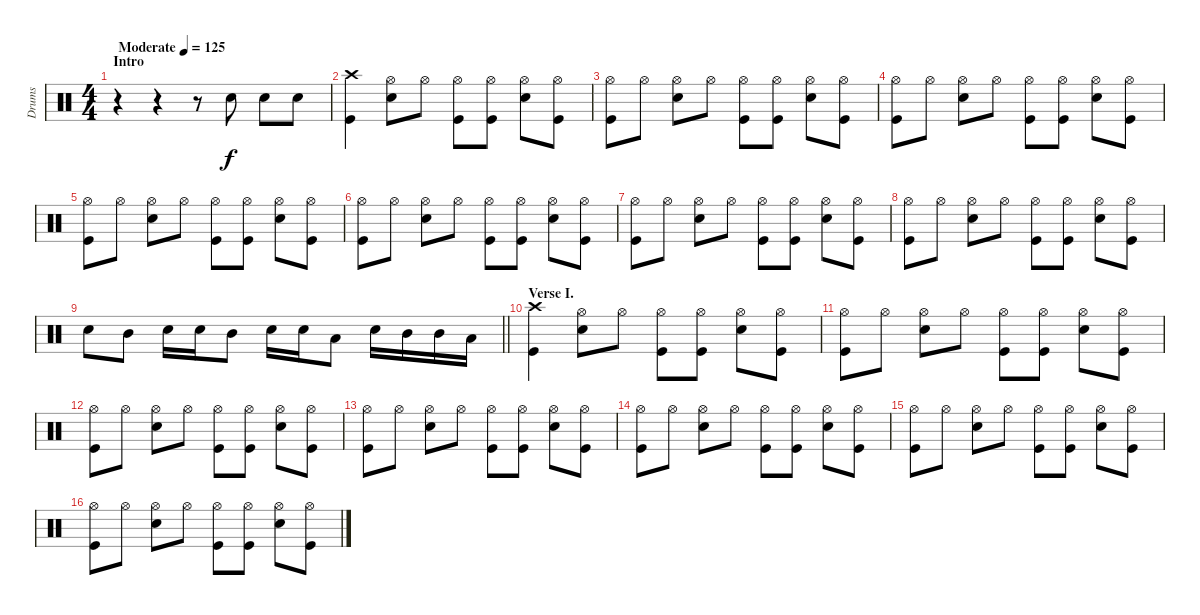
\track ("Drums" "Drums") {instrument percussion}
\staff {score}
\articulation defaults
\ts (4 4)
\section ("" "Intro")
\tempo (125 "Moderate")
\clef neutral
\ks c
r.4{dy f} r.4 r.8 "Electric Snare (hit)".8 "Electric Snare (hit)".8 "Electric Snare (hit)".8 |
("Crash high (hit)" "Kick (hit)").4 ("Hi-Hat (open)" "Electric Snare (hit)").8 "Hi-Hat (open)".8 ("Hi-Hat (open)" "Kick (hit)").8 ("Hi-Hat (open)" "Kick (hit)").8 ("Hi-Hat (open)" "Electric Snare (hit)").8 ("Hi-Hat (open)" "Kick (hit)").8 |
("Hi-Hat (open)" "Kick (hit)").8 "Hi-Hat (open)".8 ("Hi-Hat (open)" "Electric Snare (hit)").8 "Hi-Hat (open)".8 ("Hi-Hat (open)" "Kick (hit)").8 ("Hi-Hat (open)" "Kick (hit)").8 ("Hi-Hat (open)" "Electric Snare (hit)").8 ("Hi-Hat (open)" "Kick (hit)").8 |
("Hi-Hat (open)" "Kick (hit)").8 "Hi-Hat (open)".8 ("Hi-Hat (open)" "Electric Snare (hit)").8 "Hi-Hat (open)".8 ("Hi-Hat (open)" "Kick (hit)").8 ("Hi-Hat (open)" "Kick (hit)").8 ("Hi-Hat (open)" "Electric Snare (hit)").8 ("Hi-Hat (open)" "Kick (hit)").8 |
("Hi-Hat (open)" "Kick (hit)").8 "Hi-Hat (open)".8 ("Hi-Hat (open)" "Electric Snare (hit)").8 "Hi-Hat (open)".8 ("Hi-Hat (open)" "Kick (hit)").8 ("Hi-Hat (open)" "Kick (hit)").8 ("Hi-Hat (open)" "Electric Snare (hit)").8 ("Hi-Hat (open)" "Kick (hit)").8 |
("Hi-Hat (open)" "Kick (hit)").8 "Hi-Hat (open)".8 ("Hi-Hat (open)" "Electric Snare (hit)").8 "Hi-Hat (open)".8 ("Hi-Hat (open)" "Kick (hit)").8 ("Hi-Hat (open)" "Kick (hit)").8 ("Hi-Hat (open)" "Electric Snare (hit)").8 ("Hi-Hat (open)" "Kick (hit)").8 |
("Hi-Hat (open)" "Kick (hit)").8 "Hi-Hat (open)".8 ("Hi-Hat (open)" "Electric Snare (hit)").8 "Hi-Hat (open)".8 ("Hi-Hat (open)" "Kick (hit)").8 ("Hi-Hat (open)" "Kick (hit)").8 ("Hi-Hat (open)" "Electric Snare (hit)").8 ("Hi-Hat (open)" "Kick (hit)").8 |
("Hi-Hat (open)" "Kick (hit)").8 "Hi-Hat (open)".8 ("Hi-Hat (open)" "Electric Snare (hit)").8 "Hi-Hat (open)".8 ("Hi-Hat (open)" "Kick (hit)").8 ("Hi-Hat (open)" "Kick (hit)").8 ("Hi-Hat (open)" "Electric Snare (hit)").8 ("Hi-Hat (open)" "Kick (hit)").8 |
\barLineRight lightlight "Electric Snare (hit)".8 "Mid Tom (hit)".8 "Electric Snare (hit)".16 "Electric Snare (hit)".16 "Mid Tom (hit)".8 "Electric Snare (hit)".16 "Electric Snare (hit)".16 "Low Tom (hit)".8 "Electric Snare (hit)".16 "Mid Tom (hit)".16 "Mid Tom (hit)".16 "Low Tom (hit)".16
|
\section ("" "Verse I.")
("Crash high (hit)" "Kick (hit)").4 ("Hi-Hat (open)" "Electric Snare (hit)").8 "Hi-Hat (open)".8 ("Hi-Hat (open)" "Kick (hit)").8 ("Hi-Hat (open)" "Kick (hit)").8 ("Hi-Hat (open)" "Electric Snare (hit)").8 ("Hi-Hat (open)" "Kick (hit)").8 |
("Hi-Hat (open)" "Kick (hit)").8 "Hi-Hat (open)".8 ("Hi-Hat (open)" "Electric Snare (hit)").8 "Hi-Hat (open)".8 ("Hi-Hat (open)" "Kick (hit)").8 ("Hi-Hat (open)" "Kick (hit)").8 ("Hi-Hat (open)" "Electric Snare (hit)").8 ("Hi-Hat (open)" "Kick (hit)").8 |
("Hi-Hat (open)" "Kick (hit)").8 "Hi-Hat (open)".8 ("Hi-Hat (open)" "Electric Snare (hit)").8 "Hi-Hat (open)".8 ("Hi-Hat (open)" "Kick (hit)").8 ("Hi-Hat (open)" "Kick (hit)").8 ("Hi-Hat (open)" "Electric Snare (hit)").8 ("Hi-Hat (open)" "Kick (hit)").8 |
("Hi-Hat (open)" "Kick (hit)").8 "Hi-Hat (open)".8 ("Hi-Hat (open)" "Electric Snare (hit)").8 "Hi-Hat (open)".8 ("Hi-Hat (open)" "Kick (hit)").8 ("Hi-Hat (open)" "Kick (hit)").8 ("Hi-Hat (open)" "Electric Snare (hit)").8 ("Hi-Hat (open)" "Kick (hit)").8 |
("Hi-Hat (open)" "Kick (hit)").8 "Hi-Hat (open)".8 ("Hi-Hat (open)" "Electric Snare (hit)").8 "Hi-Hat (open)".8 ("Hi-Hat (open)" "Kick (hit)").8 ("Hi-Hat (open)" "Kick (hit)").8 ("Hi-Hat (open)" "Electric Snare (hit)").8 ("Hi-Hat (open)" "Kick (hit)").8 |
("Hi-Hat (open)" "Kick (hit)").8 "Hi-Hat (open)".8 ("Hi-Hat (open)" "Electric Snare (hit)").8 "Hi-Hat (open)".8 ("Hi-Hat (open)" "Kick (hit)").8 ("Hi-Hat (open)" "Kick (hit)").8 ("Hi-Hat (open)" "Electric Snare (hit)").8 ("Hi-Hat (open)" "Kick (hit)").8 |
("Hi-Hat (open)" "Kick (hit)").8 "Hi-Hat (open)".8 ("Hi-Hat (open)" "Electric Snare (hit)").8 "Hi-Hat (open)".8 ("Hi-Hat (open)" "Kick (hit)").8 ("Hi-Hat (open)" "Kick (hit)").8 ("Hi-Hat (open)" "Electric Snare (hit)").8 ("Hi-Hat (open)" "Kick (hit)").8
